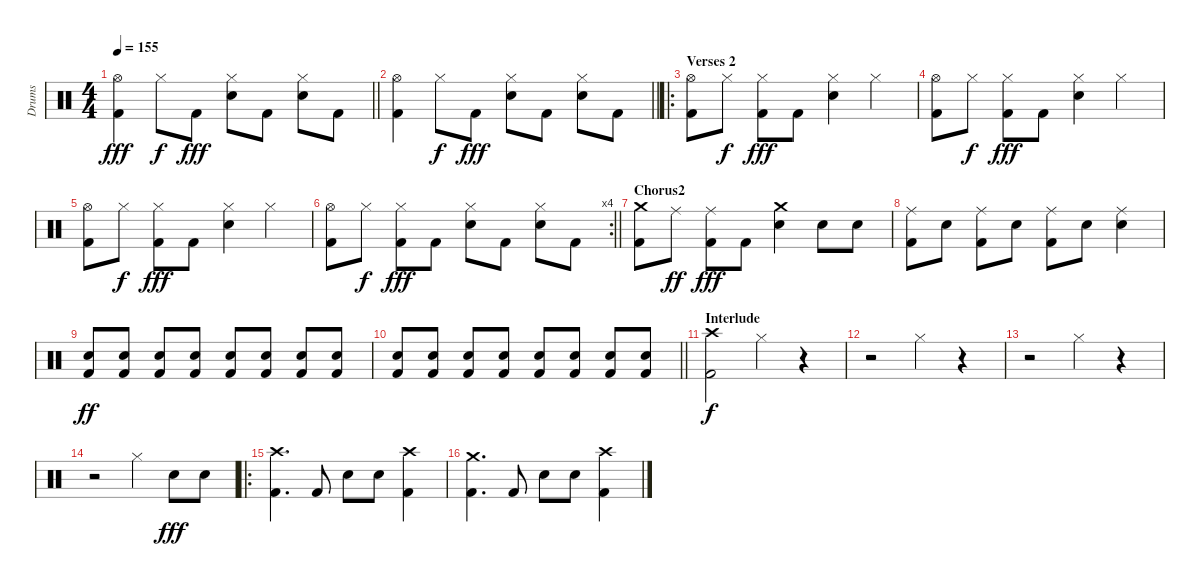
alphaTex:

\track ("Drums" "Drums") {instrument percussion}
\staff {score}
\articulation defaults
\ts (4 4)
\tempo 155
\clef neutral
\barLineRight lightlight
\ks c
("Hi-Hat (open)" "Kick (hit) 2").4{dy fff} "Hi-Hat (closed)".8{dy f} "Kick (hit) 2".8{dy fff} ("Hi-Hat (closed)" "Electric Snare (hit)").8 "Kick (hit) 2".8 ("Hi-Hat (closed)" "Electric Snare (hit)").8 "Kick (hit) 2".8 |
\barLineRight lightlight
("Hi-Hat (open)" "Kick (hit) 2").4 "Hi-Hat (closed)".8{dy f} "Kick (hit) 2".8{dy fff} ("Hi-Hat (closed)" "Electric Snare (hit)").8 "Kick (hit) 2".8 ("Hi-Hat (closed)" "Electric Snare (hit)").8 "Kick (hit) 2".8 |
\ro
\section ("" "Verses 2")
("Hi-Hat (open)" "Kick (hit) 2").8 "Hi-Hat (closed)".8{dy f} ("Hi-Hat (closed)" "Kick (hit) 2").8{dy fff} "Kick (hit) 2".8 ("Hi-Hat (closed)" "Electric Snare (hit)").4 "Hi-Hat (closed)".4 |
("Hi-Hat (open)" "Kick (hit) 2").8 "Hi-Hat (closed)".8{dy f} ("Hi-Hat (closed)" "Kick (hit) 2").8{dy fff} "Kick (hit) 2".8 ("Hi-Hat (closed)" "Electric Snare (hit)").4 "Hi-Hat (closed)".4 |
("Hi-Hat (open)" "Kick (hit) 2").8 "Hi-Hat (closed)".8{dy f} ("Hi-Hat (closed)" "Kick (hit) 2").8{dy fff} "Kick (hit) 2".8 ("Hi-Hat (closed)" "Electric Snare (hit)").4 "Hi-Hat (closed)".4 |
\rc 4
\barLineRight lightlight
("Hi-Hat (open)" "Kick (hit) 2").8 "Hi-Hat (closed)".8{dy f} ("Hi-Hat (closed)" "Kick (hit) 2").8{dy fff} "Kick (hit) 2".8 ("Hi-Hat (closed)" "Electric Snare (hit)").8 "Kick (hit) 2".8 ("Hi-Hat (closed)" "Electric Snare (hit)").8 "Kick (hit) 2".8 |
\section ("" "Chorus2")
("Crash medium (hit)" "Kick (hit) 2").8 "Ride (middle)".8{dy ff} ("Ride (middle)" "Kick (hit) 2").8{dy fff} "Kick (hit) 2".8 ("Crash medium (hit)" "Electric Snare (hit)").4 "Electric Snare (hit)".8 "Electric Snare (hit)".8 |
("Ride (middle)" "Kick (hit) 2").8 "Electric Snare (hit)".8 ("Ride (middle)" "Kick (hit) 2").8 "Electric Snare (hit)".8 ("Ride (middle)" "Kick (hit) 2").8 "Electric Snare (hit)".8 ("Ride (middle)" "Electric Snare (hit)").4 |
("Electric Snare (hit)" "Kick (hit) 2").8{dy ff} ("Electric Snare (hit)" "Kick (hit) 2").8 ("Electric Snare (hit)" "Kick (hit) 2").8 ("Electric Snare (hit)" "Kick (hit) 2").8 ("Electric Snare (hit)" "Kick (hit) 2").8 ("Electric Snare (hit)" "Kick (hit) 2").8 ("Electric Snare (hit)" "Kick (hit) 2").8 ("Electric Snare (hit)" "Kick (hit) 2").8 |
\barLineRight lightlight
("Electric Snare (hit)" "Kick (hit) 2").8 ("Electric Snare (hit)" "Kick (hit) 2").8 ("Electric Snare (hit)" "Kick (hit) 2").8 ("Electric Snare (hit)" "Kick (hit) 2").8 ("Electric Snare (hit)" "Kick (hit) 2").8 ("Electric Snare (hit)" "Kick (hit) 2").8 ("Electric Snare (hit)" "Kick (hit) 2").8 ("Electric Snare (hit)" "Kick (hit) 2").8 |
\section ("" "Interlude")
("Crash high (hit)" "Kick (hit) 2").2{dy f} "Hi-Hat (closed)".4 r.4 |
r.2 "Hi-Hat (closed)".4 r.4 |
r.2 "Hi-Hat (closed)".4 r.4 |
r.2 "Hi-Hat (closed)".4 "Electric Snare (hit)".8{dy fff} "Electric Snare (hit)".8 |
\ro
("Crash high (hit)" "Kick (hit) 2").4{d} "Kick (hit) 2".8 "Electric Snare (hit)".8 "Electric Snare (hit)".8 ("Crash high (hit)" "Kick (hit) 2").4 |
("Crash medium (hit)" "Kick (hit) 2").4{d} "Kick (hit) 2".8 "Electric Snare (hit)".8 "Electric Snare (hit)".8 ("Crash high (hit)" "Kick (hit) 2").4
